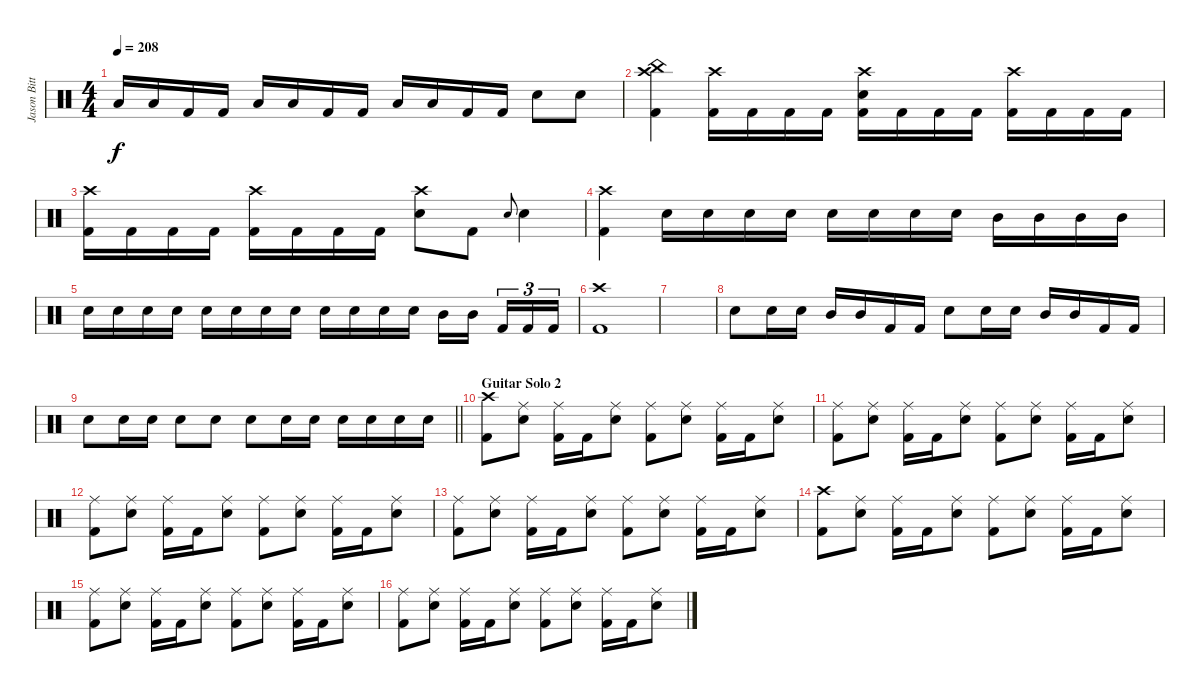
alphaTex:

\track ("Jason Bittner" "Jason Bitt") {instrument percussion}
\staff {score}
\articulation defaults
\ts (4 4)
\tempo 208
\clef neutral
\ks c "Low Tom (hit)".16{dy f} "Low Tom (hit)".16 "Kick (hit) 2".16 "Kick (hit) 2".16 "Low Tom (hit)".16 "Low Tom (hit)".16 "Kick (hit) 2".16 "Kick (hit) 2".16 "Low Tom (hit)".16 "Low Tom (hit)".16 "Kick (hit) 2".16 "Kick (hit) 2".16 "Electric Snare (hit)".8 "Electric Snare (hit)".8
|
("China (hit)" "Crash high (hit)" "Kick (hit) 2").4 ("Crash high (hit)" "Kick (hit) 2").16 "Kick (hit) 2".16 "Kick (hit) 2".16 "Kick (hit) 2".16 ("Crash high (hit)" "Electric Snare (hit)" "Kick (hit) 2").16 "Kick (hit) 2".16 "Kick (hit) 2".16 "Kick (hit) 2".16 ("Crash high (hit)" "Kick (hit) 2").16 "Kick (hit) 2".16 "Kick (hit) 2".16 "Kick (hit) 2".16 |
("Crash high (hit)" "Kick (hit) 2").16 "Kick (hit) 2".16 "Kick (hit) 2".16 "Kick (hit) 2".16 ("Crash high (hit)" "Kick (hit) 2").16 "Kick (hit) 2".16 "Kick (hit) 2".16 "Kick (hit) 2".16 ("Crash high (hit)" "Electric Snare (hit)").8 "Kick (hit) 2".8 "Electric Snare (hit)".8{gr onbeat} "Electric Snare (hit)".4 |
("Crash high (hit)" "Kick (hit) 2").4 "Electric Snare (hit)".16 "Electric Snare (hit)".16 "Electric Snare (hit)".16 "Electric Snare (hit)".16 "Electric Snare (hit)".16 "Electric Snare (hit)".16 "Electric Snare (hit)".16 "Electric Snare (hit)".16 "Mid Tom (hit)".16 "Mid Tom (hit)".16 "Mid Tom (hit)".16 "Mid Tom (hit)".16 |
"Electric Snare (hit)".16 "Electric Snare (hit)".16 "Electric Snare (hit)".16 "Electric Snare (hit)".16 "Electric Snare (hit)".16 "Electric Snare (hit)".16 "Electric Snare (hit)".16 "Electric Snare (hit)".16 "Electric Snare (hit)".16 "Electric Snare (hit)".16 "Electric Snare (hit)".16 "Electric Snare (hit)".16 "Mid Tom (hit)".16 "Mid Tom (hit)".16{beam splitsecondary} "Kick (hit) 2".16{tu (3 2)} "Kick (hit) 2".16{tu (3 2)} "Kick (hit) 2".16{tu (3 2)} |
("Crash high (hit)" "Kick (hit) 2").1 |
|
"Electric Snare (hit)".8 "Electric Snare (hit)".16 "Electric Snare (hit)".16 "Mid Tom (hit)".16 "Mid Tom (hit)".16 "Kick (hit) 2".16 "Kick (hit) 2".16 "Electric Snare (hit)".8 "Electric Snare (hit)".16 "Electric Snare (hit)".16 "Mid Tom (hit)".16 "Mid Tom (hit)".16 "Kick (hit) 2".16 "Kick (hit) 2".16 |
\barLineRight lightlight "Electric Snare (hit)".8 "Electric Snare (hit)".16 "Electric Snare (hit)".16 "Electric Snare (hit)".8 "Electric Snare (hit)".8 "Electric Snare (hit)".8 "Electric Snare (hit)".16 "Electric Snare (hit)".16 "Electric Snare (hit)".16 "Electric Snare (hit)".16 "Electric Snare (hit)".16 "Electric Snare (hit)".16
|
\section ("" "Guitar Solo 2")
("Crash high (hit)" "Kick (hit) 2").8 ("Ride (middle)" "Electric Snare (hit)").8 ("Ride (middle)" "Kick (hit) 2").16 "Kick (hit) 2".16 ("Ride (middle)" "Electric Snare (hit)").8 ("Ride (middle)" "Kick (hit) 2").8 ("Ride (middle)" "Electric Snare (hit)").8 ("Ride (middle)" "Kick (hit) 2").16 "Kick (hit) 2".16 ("Ride (middle)" "Electric Snare (hit)").8 |
("Ride (middle)" "Kick (hit) 2").8 ("Ride (middle)" "Electric Snare (hit)").8 ("Ride (middle)" "Kick (hit) 2").16 "Kick (hit) 2".16 ("Ride (middle)" "Electric Snare (hit)").8 ("Ride (middle)" "Kick (hit) 2").8 ("Ride (middle)" "Electric Snare (hit)").8 ("Ride (middle)" "Kick (hit) 2").16 "Kick (hit) 2".16 ("Ride (middle)" "Electric Snare (hit)").8 |
("Ride (middle)" "Kick (hit) 2").8 ("Ride (middle)" "Electric Snare (hit)").8 ("Ride (middle)" "Kick (hit) 2").16 "Kick (hit) 2".16 ("Ride (middle)" "Electric Snare (hit)").8 ("Ride (middle)" "Kick (hit) 2").8 ("Ride (middle)" "Electric Snare (hit)").8 ("Ride (middle)" "Kick (hit) 2").16 "Kick (hit) 2".16 ("Ride (middle)" "Electric Snare (hit)").8 |
("Ride (middle)" "Kick (hit) 2").8 ("Ride (middle)" "Electric Snare (hit)").8 ("Ride (middle)" "Kick (hit) 2").16 "Kick (hit) 2".16 ("Ride (middle)" "Electric Snare (hit)").8 ("Ride (middle)" "Kick (hit) 2").8 ("Ride (middle)" "Electric Snare (hit)").8 ("Ride (middle)" "Kick (hit) 2").16 "Kick (hit) 2".16 ("Ride (middle)" "Electric Snare (hit)").8 |
("Crash high (hit)" "Kick (hit) 2").8 ("Ride (middle)" "Electric Snare (hit)").8 ("Ride (middle)" "Kick (hit) 2").16 "Kick (hit) 2".16 ("Ride (middle)" "Electric Snare (hit)").8 ("Ride (middle)" "Kick (hit) 2").8 ("Ride (middle)" "Electric Snare (hit)").8 ("Ride (middle)" "Kick (hit) 2").16 "Kick (hit) 2".16 ("Ride (middle)" "Electric Snare (hit)").8 |
("Ride (middle)" "Kick (hit) 2").8 ("Ride (middle)" "Electric Snare (hit)").8 ("Ride (middle)" "Kick (hit) 2").16 "Kick (hit) 2".16 ("Ride (middle)" "Electric Snare (hit)").8 ("Ride (middle)" "Kick (hit) 2").8 ("Ride (middle)" "Electric Snare (hit)").8 ("Ride (middle)" "Kick (hit) 2").16 "Kick (hit) 2".16 ("Ride (middle)" "Electric Snare (hit)").8 |
("Ride (middle)" "Kick (hit) 2").8 ("Ride (middle)" "Electric Snare (hit)").8 ("Ride (middle)" "Kick (hit) 2").16 "Kick (hit) 2".16 ("Ride (middle)" "Electric Snare (hit)").8 ("Ride (middle)" "Kick (hit) 2").8 ("Ride (middle)" "Electric Snare (hit)").8 ("Ride (middle)" "Kick (hit) 2").16 "Kick (hit) 2".16 ("Ride (middle)" "Electric Snare (hit)").8
